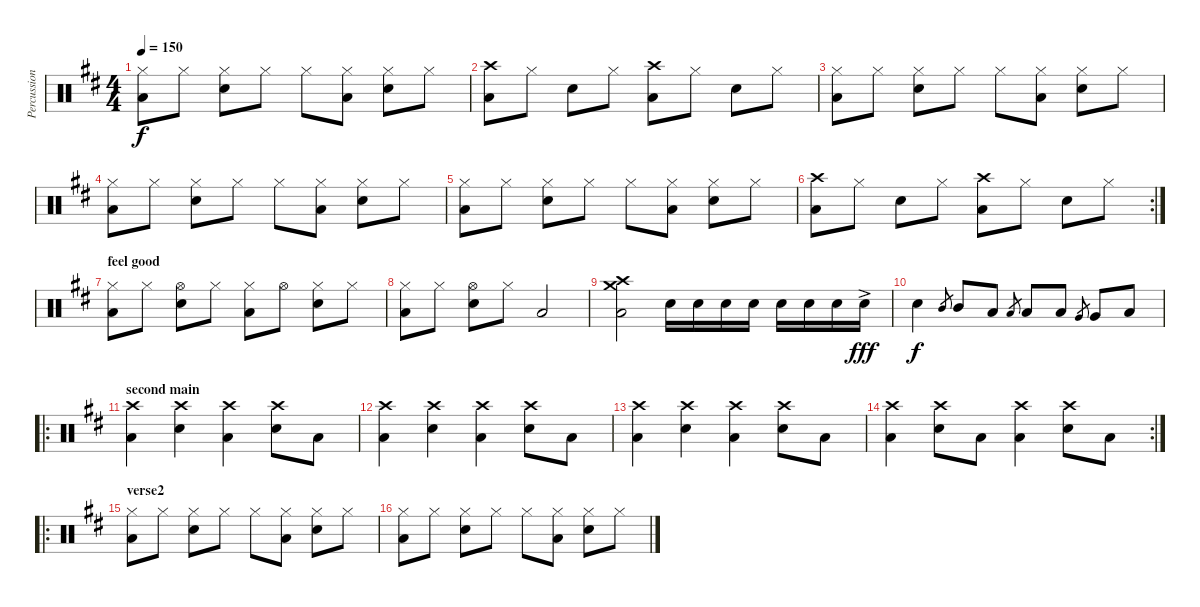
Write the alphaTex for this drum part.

\track ("Percussion" "Percussion") {instrument percussion}
\staff {score}
\articulation defaults
\ts (4 4)
\tempo 150
\clef neutral
\ks bminor
("Hi-Hat (closed)" "Low Floor Tom (hit)").8{dy f} "Hi-Hat (closed)".8 ("Hi-Hat (closed)" "Electric Snare (hit)").8 "Hi-Hat (closed)".8 "Hi-Hat (closed)".8 ("Hi-Hat (closed)" "Low Floor Tom (hit)").8 ("Hi-Hat (closed)" "Electric Snare (hit)").8 "Hi-Hat (closed)".8 |
("Low Floor Tom (hit)" "Crash high (hit)").8 "Hi-Hat (closed)".8 "Electric Snare (hit)".8 "Hi-Hat (closed)".8 ("Crash high (hit)" "Low Floor Tom (hit)").8 "Hi-Hat (closed)".8 "Electric Snare (hit)".8 "Hi-Hat (closed)".8 |
("Hi-Hat (closed)" "Low Floor Tom (hit)").8 "Hi-Hat (closed)".8 ("Hi-Hat (closed)" "Electric Snare (hit)").8 "Hi-Hat (closed)".8 "Hi-Hat (closed)".8 ("Hi-Hat (closed)" "Low Floor Tom (hit)").8 ("Hi-Hat (closed)" "Electric Snare (hit)").8 "Hi-Hat (closed)".8 |
("Hi-Hat (closed)" "Low Floor Tom (hit)").8 "Hi-Hat (closed)".8 ("Hi-Hat (closed)" "Electric Snare (hit)").8 "Hi-Hat (closed)".8 "Hi-Hat (closed)".8 ("Hi-Hat (closed)" "Low Floor Tom (hit)").8 ("Hi-Hat (closed)" "Electric Snare (hit)").8 "Hi-Hat (closed)".8 |
("Hi-Hat (closed)" "Low Floor Tom (hit)").8 "Hi-Hat (closed)".8 ("Hi-Hat (closed)" "Electric Snare (hit)").8 "Hi-Hat (closed)".8 "Hi-Hat (closed)".8 ("Hi-Hat (closed)" "Low Floor Tom (hit)").8 ("Hi-Hat (closed)" "Electric Snare (hit)").8 "Hi-Hat (closed)".8 |
\rc 2
("Low Floor Tom (hit)" "Crash high (hit)").8 "Hi-Hat (closed)".8 "Electric Snare (hit)".8 "Hi-Hat (closed)".8 ("Crash high (hit)" "Low Floor Tom (hit)").8 "Hi-Hat (closed)".8 "Electric Snare (hit)".8 "Hi-Hat (closed)".8 |
\section ("" "feel good")
("Low Floor Tom (hit)" "Hi-Hat (closed)").8 "Hi-Hat (closed)".8 ("Electric Snare (hit)" "Hi-Hat (open)").8 "Hi-Hat (closed)".8 ("Low Floor Tom (hit)" "Hi-Hat (closed)").8 "Hi-Hat (open)".8 ("Electric Snare (hit)" "Hi-Hat (closed)").8 "Hi-Hat (closed)".8 |
("Low Floor Tom (hit)" "Hi-Hat (closed)").8 "Hi-Hat (closed)".8 ("Electric Snare (hit)" "Hi-Hat (open)").8 "Hi-Hat (closed)".8 "Low Floor Tom (hit)".2 |
("Crash medium (hit)" "Low Floor Tom (hit)" "Crash high (hit)").2 "Electric Snare (hit)".16 "Electric Snare (hit)".16 "Electric Snare (hit)".16 "Electric Snare (hit)".16 "Electric Snare (hit)".16 "Electric Snare (hit)".16 "Electric Snare (hit)".16 "Electric Snare (hit)"{ac}.16{dy fff} |
"Electric Snare (hit)".4{dy f} "Mid Tom (hit)".8{gr} "Mid Tom (hit)".8 "Low Floor Tom (hit)".8 "Low Tom (hit)".8{gr} "Low Tom (hit)".8 "Low Floor Tom (hit)".8 "Very Low Tom (hit)".8{gr} "Very Low Tom (hit)".8 "Low Floor Tom (hit)".8 |
\ro
\section ("" "second main")
("Crash high (hit)" "Low Floor Tom (hit)").4{volume 16} ("Crash high (hit)" "Electric Snare (hit)").4 ("Crash high (hit)" "Low Floor Tom (hit)").4 ("Crash high (hit)" "Electric Snare (hit)").8 "Low Floor Tom (hit)".8 |
("Crash high (hit)" "Low Floor Tom (hit)").4 ("Crash high (hit)" "Electric Snare (hit)").4 ("Crash high (hit)" "Low Floor Tom (hit)").4 ("Crash high (hit)" "Electric Snare (hit)").8 "Low Floor Tom (hit)".8 |
("Crash high (hit)" "Low Floor Tom (hit)").4 ("Crash high (hit)" "Electric Snare (hit)").4 ("Crash high (hit)" "Low Floor Tom (hit)").4 ("Crash high (hit)" "Electric Snare (hit)").8 "Low Floor Tom (hit)".8 |
\rc 2
("Crash high (hit)" "Low Floor Tom (hit)").4 ("Crash high (hit)" "Electric Snare (hit)").8 "Low Floor Tom (hit)".8 ("Crash high (hit)" "Low Floor Tom (hit)").4 ("Crash high (hit)" "Electric Snare (hit)").8 "Low Floor Tom (hit)".8 |
\ro
\section ("" "verse2")
("Hi-Hat (closed)" "Low Floor Tom (hit)").8 "Hi-Hat (closed)".8 ("Hi-Hat (closed)" "Electric Snare (hit)").8 "Hi-Hat (closed)".8 "Hi-Hat (closed)".8 ("Hi-Hat (closed)" "Low Floor Tom (hit)").8 ("Hi-Hat (closed)" "Electric Snare (hit)").8 "Hi-Hat (closed)".8 |
("Hi-Hat (closed)" "Low Floor Tom (hit)").8 "Hi-Hat (closed)".8 ("Hi-Hat (closed)" "Electric Snare (hit)").8 "Hi-Hat (closed)".8 "Hi-Hat (closed)".8 ("Hi-Hat (closed)" "Low Floor Tom (hit)").8 ("Hi-Hat (closed)" "Electric Snare (hit)").8 "Hi-Hat (closed)".8
